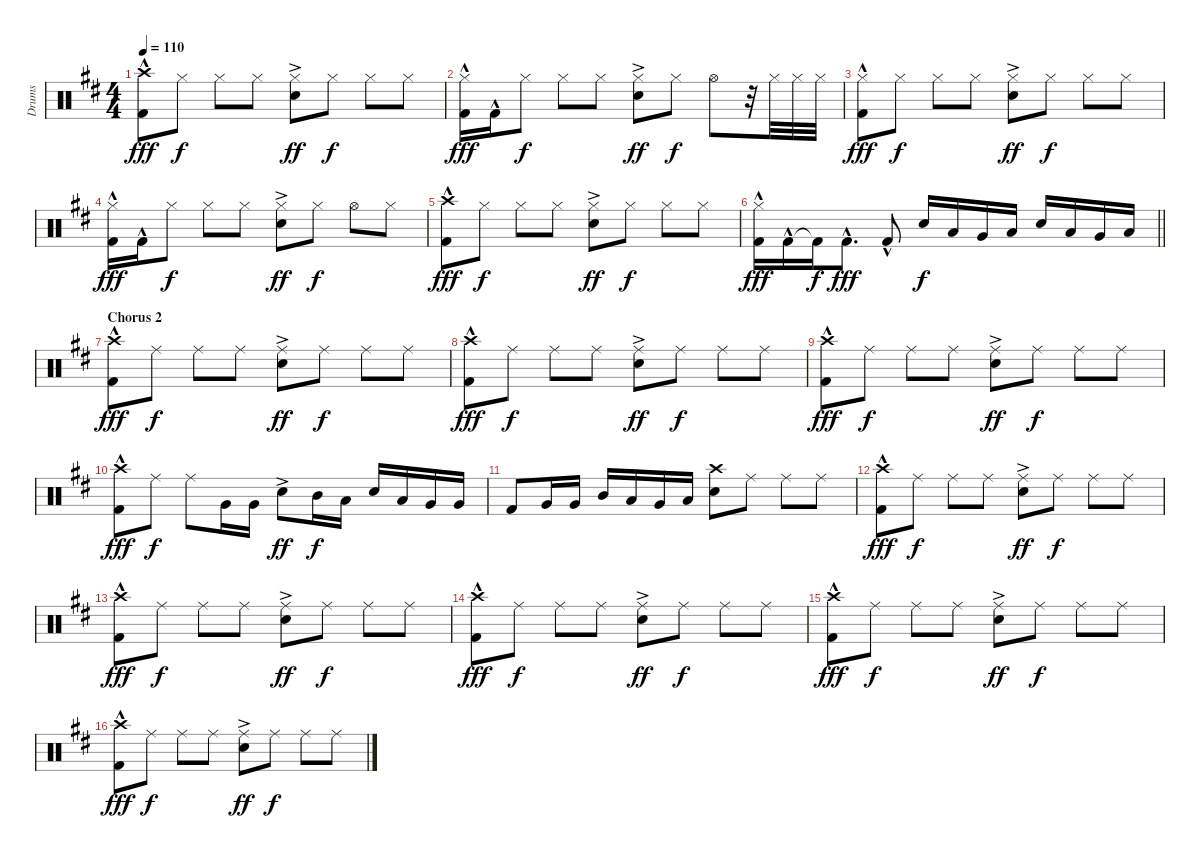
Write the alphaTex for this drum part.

\track ("Drums" "Drums") {instrument percussion}
\staff {score}
\articulation defaults
\ts (4 4)
\tempo 110
\clef neutral
\ks d
("Crash high (hit)" "Kick (hit) 2"{hac}).8{dy fff} "Hi-Hat (closed)".8{dy f} "Hi-Hat (closed)".8 "Hi-Hat (closed)".8 ("Snare (hit) 2"{ac} "Hi-Hat (closed)").8{dy ff} "Hi-Hat (closed)".8{dy f} "Hi-Hat (closed)".8 "Hi-Hat (closed)".8 |
("Hi-Hat (closed)" "Kick (hit) 2"{hac}).16{dy fff} "Kick (hit) 2"{hac}.16 "Hi-Hat (closed)".8{dy f} "Hi-Hat (closed)".8 "Hi-Hat (closed)".8 ("Snare (hit) 2"{ac} "Hi-Hat (closed)").8{dy ff} "Hi-Hat (closed)".8{dy f} "Hi-Hat (open)".8 r.32 "Hi-Hat (closed)".32 "Hi-Hat (closed)".32 "Hi-Hat (closed)".32 |
("Hi-Hat (closed)" "Kick (hit) 2"{hac}).8{dy fff} "Hi-Hat (closed)".8{dy f} "Hi-Hat (closed)".8 "Hi-Hat (closed)".8 ("Snare (hit) 2"{ac} "Hi-Hat (closed)").8{dy ff} "Hi-Hat (closed)".8{dy f} "Hi-Hat (closed)".8 "Hi-Hat (closed)".8 |
("Hi-Hat (closed)" "Kick (hit) 2"{hac}).16{dy fff} "Kick (hit) 2"{hac}.16 "Hi-Hat (closed)".8{dy f} "Hi-Hat (closed)".8 "Hi-Hat (closed)".8 ("Snare (hit) 2"{ac} "Hi-Hat (closed)").8{dy ff} "Hi-Hat (closed)".8{dy f} "Hi-Hat (open)".8 "Hi-Hat (closed)".8 |
("Crash high (hit)" "Kick (hit) 2"{hac}).8{dy fff} "Hi-Hat (closed)".8{dy f} "Hi-Hat (closed)".8 "Hi-Hat (closed)".8 ("Snare (hit) 2"{ac} "Hi-Hat (closed)").8{dy ff} "Hi-Hat (closed)".8{dy f} "Hi-Hat (closed)".8 "Hi-Hat (closed)".8 |
\barLineRight lightlight
("Hi-Hat (closed)" "Kick (hit) 2"{hac}).16{dy fff} "Kick (hit) 2"{hac}.16 "Kick (hit) 2"{t}.16{dy f} "Kick (hit) 2"{hac}.8{d dy fff} "Kick (hit) 2"{hac}.8 "Snare (hit) 2".16{dy f} "Low Tom (hit)".16 "Very Low Tom (hit)".16 "Low Floor Tom (hit)".16 "Snare (hit) 2".16 "Low Tom (hit)".16 "Very Low Tom (hit)".16 "Low Floor Tom (hit)".16 |
\section ("" "Chorus 2")
("Crash high (hit)" "Kick (hit) 2"{hac}).8{dy fff} "Ride (middle)".8{dy f} "Ride (middle)".8 "Ride (middle)".8 ("Snare (hit) 2"{ac} "Ride (middle)").8{dy ff} "Ride (middle)".8{dy f} "Ride (middle)".8 "Ride (middle)".8 |
("Crash high (hit)" "Kick (hit) 2"{hac}).8{dy fff} "Ride (middle)".8{dy f} "Ride (middle)".8 "Ride (middle)".8 ("Snare (hit) 2"{ac} "Ride (middle)").8{dy ff} "Ride (middle)".8{dy f} "Ride (middle)".8 "Ride (middle)".8 |
("Crash high (hit)" "Kick (hit) 2"{hac}).8{dy fff} "Ride (middle)".8{dy f} "Ride (middle)".8 "Ride (middle)".8 ("Snare (hit) 2"{ac} "Ride (middle)").8{dy ff} "Ride (middle)".8{dy f} "Ride (middle)".8 "Ride (middle)".8 |
("Crash high (hit)" "Kick (hit) 2"{hac}).8{dy fff} "Ride (middle)".8{dy f} "Ride (middle)".8 "Very Low Tom (hit)".16 "Very Low Tom (hit)".16 "Snare (hit) 2"{ac}.8{dy ff} "Mid Tom (hit)".16{dy f} "Low Tom (hit)".16 "Snare (hit) 2".16 "Low Tom (hit)".16 "Very Low Tom (hit)".16 "Very Low Tom (hit)".16 |
"Kick (hit) 2".8 "Very Low Tom (hit)".16 "Very Low Tom (hit)".16 "Mid Tom (hit)".16 "Low Tom (hit)".16 "Very Low Tom (hit)".16 "Low Floor Tom (hit)".16 ("Snare (hit) 2" "Crash high (hit)").8 "Ride (middle)".8 "Ride (middle)".8 "Ride (middle)".8 |
("Crash high (hit)" "Kick (hit) 2"{hac}).8{dy fff} "Ride (middle)".8{dy f} "Ride (middle)".8 "Ride (middle)".8 ("Snare (hit) 2"{ac} "Ride (middle)").8{dy ff} "Ride (middle)".8{dy f} "Ride (middle)".8 "Ride (middle)".8 |
("Crash high (hit)" "Kick (hit) 2"{hac}).8{dy fff} "Ride (middle)".8{dy f} "Ride (middle)".8 "Ride (middle)".8 ("Snare (hit) 2"{ac} "Ride (middle)").8{dy ff} "Ride (middle)".8{dy f} "Ride (middle)".8 "Ride (middle)".8 |
("Crash high (hit)" "Kick (hit) 2"{hac}).8{dy fff} "Ride (middle)".8{dy f} "Ride (middle)".8 "Ride (middle)".8 ("Snare (hit) 2"{ac} "Ride (middle)").8{dy ff} "Ride (middle)".8{dy f} "Ride (middle)".8 "Ride (middle)".8 |
("Crash high (hit)" "Kick (hit) 2"{hac}).8{dy fff} "Ride (middle)".8{dy f} "Ride (middle)".8 "Ride (middle)".8 ("Snare (hit) 2"{ac} "Ride (middle)").8{dy ff} "Ride (middle)".8{dy f} "Ride (middle)".8 "Ride (middle)".8 |
("Crash high (hit)" "Kick (hit) 2"{hac}).8{dy fff} "Ride (middle)".8{dy f} "Ride (middle)".8 "Ride (middle)".8 ("Snare (hit) 2"{ac} "Ride (middle)").8{dy ff} "Ride (middle)".8{dy f} "Ride (middle)".8 "Ride (middle)".8
